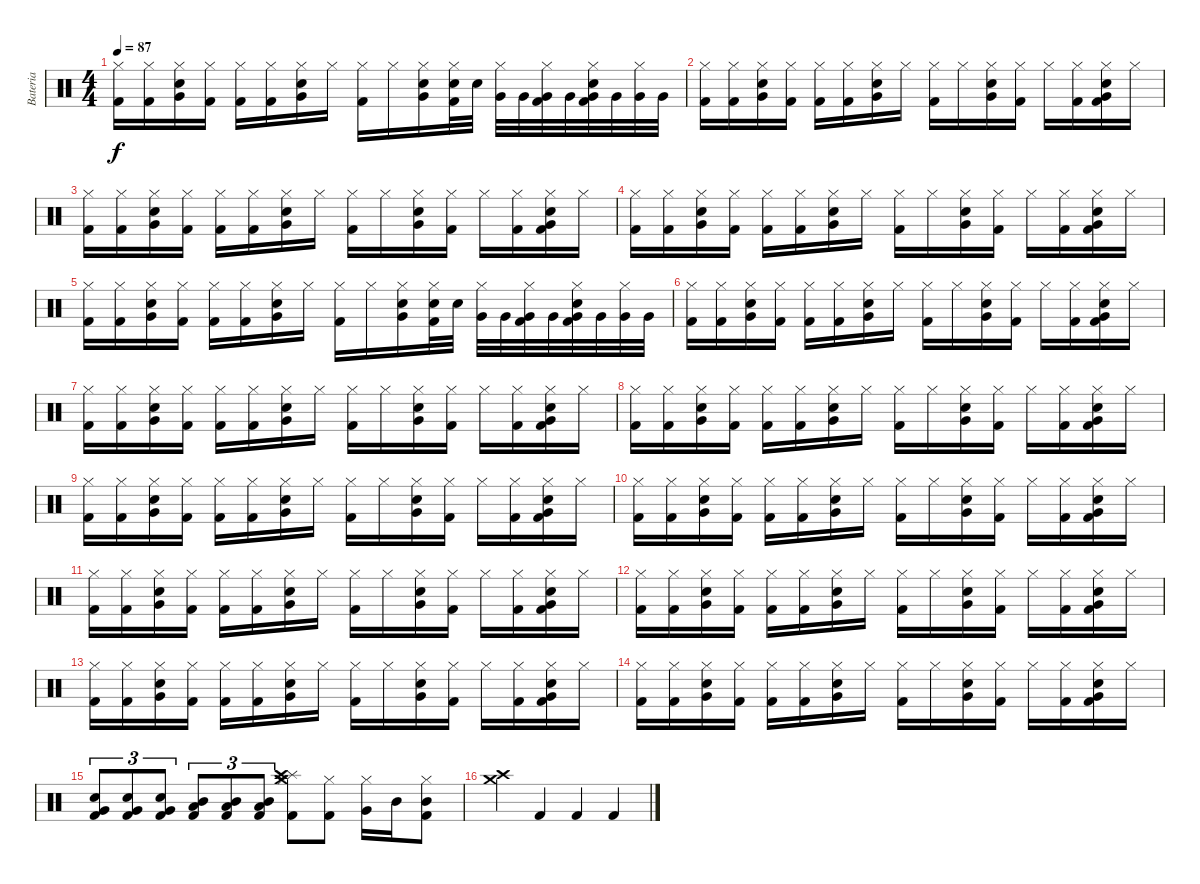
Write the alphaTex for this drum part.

\track ("Bateria" "Bateria") {instrument percussion}
\staff {score}
\articulation defaults
\ts (4 4)
\tempo 87
\clef neutral
\ks c
("Hi-Hat (closed)" "Kick (hit) 2").16{dy f} ("Hi-Hat (closed)" "Kick (hit) 2").16 ("Hi-Hat (closed)" "Snare (hit) 2" "Very Low Tom (hit)").16 ("Hi-Hat (closed)" "Kick (hit) 2").16 ("Hi-Hat (closed)" "Kick (hit) 2").16 ("Hi-Hat (closed)" "Kick (hit) 2").16 ("Hi-Hat (closed)" "Snare (hit) 2" "Very Low Tom (hit)").16 "Hi-Hat (closed)".16 ("Hi-Hat (closed)" "Kick (hit) 2").16 "Hi-Hat (closed)".16 ("Hi-Hat (closed)" "Snare (hit) 2" "Very Low Tom (hit)").16 ("Hi-Hat (closed)" "Kick (hit) 2" "Snare (hit) 2").32 "Snare (hit) 2".32 ("Hi-Hat (closed)" "Very Low Tom (hit)").32 "Very Low Tom (hit)".32 ("Hi-Hat (closed)" "Kick (hit) 2" "Very Low Tom (hit)").32 "Very Low Tom (hit)".32 ("Hi-Hat (closed)" "Kick (hit) 2" "Snare (hit) 2" "Very Low Tom (hit)").32 "Very Low Tom (hit)".32 ("Hi-Hat (closed)" "Very Low Tom (hit)").32 "Very Low Tom (hit)".32 |
("Hi-Hat (closed)" "Kick (hit) 2").16 ("Hi-Hat (closed)" "Kick (hit) 2").16 ("Hi-Hat (closed)" "Snare (hit) 2" "Very Low Tom (hit)").16 ("Hi-Hat (closed)" "Kick (hit) 2").16 ("Hi-Hat (closed)" "Kick (hit) 2").16 ("Hi-Hat (closed)" "Kick (hit) 2").16 ("Hi-Hat (closed)" "Snare (hit) 2" "Very Low Tom (hit)").16 "Hi-Hat (closed)".16 ("Hi-Hat (closed)" "Kick (hit) 2").16 "Hi-Hat (closed)".16 ("Hi-Hat (closed)" "Snare (hit) 2" "Very Low Tom (hit)").16 ("Hi-Hat (closed)" "Kick (hit) 2").16 "Hi-Hat (closed)".16 ("Hi-Hat (closed)" "Kick (hit) 2").16 ("Hi-Hat (closed)" "Kick (hit) 2" "Snare (hit) 2" "Very Low Tom (hit)").16 "Hi-Hat (closed)".16 |
("Hi-Hat (closed)" "Kick (hit) 2").16 ("Hi-Hat (closed)" "Kick (hit) 2").16 ("Hi-Hat (closed)" "Snare (hit) 2" "Very Low Tom (hit)").16 ("Hi-Hat (closed)" "Kick (hit) 2").16 ("Hi-Hat (closed)" "Kick (hit) 2").16 ("Hi-Hat (closed)" "Kick (hit) 2").16 ("Hi-Hat (closed)" "Snare (hit) 2" "Very Low Tom (hit)").16 "Hi-Hat (closed)".16 ("Hi-Hat (closed)" "Kick (hit) 2").16 "Hi-Hat (closed)".16 ("Hi-Hat (closed)" "Snare (hit) 2" "Very Low Tom (hit)").16 ("Hi-Hat (closed)" "Kick (hit) 2").16 "Hi-Hat (closed)".16 ("Hi-Hat (closed)" "Kick (hit) 2").16 ("Hi-Hat (closed)" "Kick (hit) 2" "Snare (hit) 2" "Very Low Tom (hit)").16 "Hi-Hat (closed)".16 |
("Hi-Hat (closed)" "Kick (hit) 2").16 ("Hi-Hat (closed)" "Kick (hit) 2").16 ("Hi-Hat (closed)" "Snare (hit) 2" "Very Low Tom (hit)").16 ("Hi-Hat (closed)" "Kick (hit) 2").16 ("Hi-Hat (closed)" "Kick (hit) 2").16 ("Hi-Hat (closed)" "Kick (hit) 2").16 ("Hi-Hat (closed)" "Snare (hit) 2" "Very Low Tom (hit)").16 "Hi-Hat (closed)".16 ("Hi-Hat (closed)" "Kick (hit) 2").16 "Hi-Hat (closed)".16 ("Hi-Hat (closed)" "Snare (hit) 2" "Very Low Tom (hit)").16 ("Hi-Hat (closed)" "Kick (hit) 2").16 "Hi-Hat (closed)".16 ("Hi-Hat (closed)" "Kick (hit) 2").16 ("Hi-Hat (closed)" "Kick (hit) 2" "Snare (hit) 2" "Very Low Tom (hit)").16 "Hi-Hat (closed)".16 |
("Hi-Hat (closed)" "Kick (hit) 2").16 ("Hi-Hat (closed)" "Kick (hit) 2").16 ("Hi-Hat (closed)" "Snare (hit) 2" "Very Low Tom (hit)").16 ("Hi-Hat (closed)" "Kick (hit) 2").16 ("Hi-Hat (closed)" "Kick (hit) 2").16 ("Hi-Hat (closed)" "Kick (hit) 2").16 ("Hi-Hat (closed)" "Snare (hit) 2" "Very Low Tom (hit)").16 "Hi-Hat (closed)".16 ("Hi-Hat (closed)" "Kick (hit) 2").16 "Hi-Hat (closed)".16 ("Hi-Hat (closed)" "Snare (hit) 2" "Very Low Tom (hit)").16 ("Hi-Hat (closed)" "Kick (hit) 2" "Snare (hit) 2").32 "Snare (hit) 2".32 ("Hi-Hat (closed)" "Very Low Tom (hit)").32 "Very Low Tom (hit)".32 ("Hi-Hat (closed)" "Kick (hit) 2" "Very Low Tom (hit)").32 "Very Low Tom (hit)".32 ("Hi-Hat (closed)" "Kick (hit) 2" "Snare (hit) 2" "Very Low Tom (hit)").32 "Very Low Tom (hit)".32 ("Hi-Hat (closed)" "Very Low Tom (hit)").32 "Very Low Tom (hit)".32 |
("Hi-Hat (closed)" "Kick (hit) 2").16 ("Hi-Hat (closed)" "Kick (hit) 2").16 ("Hi-Hat (closed)" "Snare (hit) 2" "Very Low Tom (hit)").16 ("Hi-Hat (closed)" "Kick (hit) 2").16 ("Hi-Hat (closed)" "Kick (hit) 2").16 ("Hi-Hat (closed)" "Kick (hit) 2").16 ("Hi-Hat (closed)" "Snare (hit) 2" "Very Low Tom (hit)").16 "Hi-Hat (closed)".16 ("Hi-Hat (closed)" "Kick (hit) 2").16 "Hi-Hat (closed)".16 ("Hi-Hat (closed)" "Snare (hit) 2" "Very Low Tom (hit)").16 ("Hi-Hat (closed)" "Kick (hit) 2").16 "Hi-Hat (closed)".16 ("Hi-Hat (closed)" "Kick (hit) 2").16 ("Hi-Hat (closed)" "Kick (hit) 2" "Snare (hit) 2" "Very Low Tom (hit)").16 "Hi-Hat (closed)".16 |
("Hi-Hat (closed)" "Kick (hit) 2").16 ("Hi-Hat (closed)" "Kick (hit) 2").16 ("Hi-Hat (closed)" "Snare (hit) 2" "Very Low Tom (hit)").16 ("Hi-Hat (closed)" "Kick (hit) 2").16 ("Hi-Hat (closed)" "Kick (hit) 2").16 ("Hi-Hat (closed)" "Kick (hit) 2").16 ("Hi-Hat (closed)" "Snare (hit) 2" "Very Low Tom (hit)").16 "Hi-Hat (closed)".16 ("Hi-Hat (closed)" "Kick (hit) 2").16 "Hi-Hat (closed)".16 ("Hi-Hat (closed)" "Snare (hit) 2" "Very Low Tom (hit)").16 ("Hi-Hat (closed)" "Kick (hit) 2").16 "Hi-Hat (closed)".16 ("Hi-Hat (closed)" "Kick (hit) 2").16 ("Hi-Hat (closed)" "Kick (hit) 2" "Snare (hit) 2" "Very Low Tom (hit)").16 "Hi-Hat (closed)".16 |
("Hi-Hat (closed)" "Kick (hit) 2").16 ("Hi-Hat (closed)" "Kick (hit) 2").16 ("Hi-Hat (closed)" "Snare (hit) 2" "Very Low Tom (hit)").16 ("Hi-Hat (closed)" "Kick (hit) 2").16 ("Hi-Hat (closed)" "Kick (hit) 2").16 ("Hi-Hat (closed)" "Kick (hit) 2").16 ("Hi-Hat (closed)" "Snare (hit) 2" "Very Low Tom (hit)").16 "Hi-Hat (closed)".16 ("Hi-Hat (closed)" "Kick (hit) 2").16 "Hi-Hat (closed)".16 ("Hi-Hat (closed)" "Snare (hit) 2" "Very Low Tom (hit)").16 ("Hi-Hat (closed)" "Kick (hit) 2").16 "Hi-Hat (closed)".16 ("Hi-Hat (closed)" "Kick (hit) 2").16 ("Hi-Hat (closed)" "Kick (hit) 2" "Snare (hit) 2" "Very Low Tom (hit)").16 "Hi-Hat (closed)".16 |
("Hi-Hat (closed)" "Kick (hit) 2").16 ("Hi-Hat (closed)" "Kick (hit) 2").16 ("Hi-Hat (closed)" "Snare (hit) 2" "Very Low Tom (hit)").16 ("Hi-Hat (closed)" "Kick (hit) 2").16 ("Hi-Hat (closed)" "Kick (hit) 2").16 ("Hi-Hat (closed)" "Kick (hit) 2").16 ("Hi-Hat (closed)" "Snare (hit) 2" "Very Low Tom (hit)").16 "Hi-Hat (closed)".16 ("Hi-Hat (closed)" "Kick (hit) 2").16 "Hi-Hat (closed)".16 ("Hi-Hat (closed)" "Snare (hit) 2" "Very Low Tom (hit)").16 ("Hi-Hat (closed)" "Kick (hit) 2").16 "Hi-Hat (closed)".16 ("Hi-Hat (closed)" "Kick (hit) 2").16 ("Hi-Hat (closed)" "Kick (hit) 2" "Snare (hit) 2" "Very Low Tom (hit)").16 "Hi-Hat (closed)".16 |
("Hi-Hat (closed)" "Kick (hit) 2").16 ("Hi-Hat (closed)" "Kick (hit) 2").16 ("Hi-Hat (closed)" "Snare (hit) 2" "Very Low Tom (hit)").16 ("Hi-Hat (closed)" "Kick (hit) 2").16 ("Hi-Hat (closed)" "Kick (hit) 2").16 ("Hi-Hat (closed)" "Kick (hit) 2").16 ("Hi-Hat (closed)" "Snare (hit) 2" "Very Low Tom (hit)").16 "Hi-Hat (closed)".16 ("Hi-Hat (closed)" "Kick (hit) 2").16 "Hi-Hat (closed)".16 ("Hi-Hat (closed)" "Snare (hit) 2" "Very Low Tom (hit)").16 ("Hi-Hat (closed)" "Kick (hit) 2").16 "Hi-Hat (closed)".16 ("Hi-Hat (closed)" "Kick (hit) 2").16 ("Hi-Hat (closed)" "Kick (hit) 2" "Snare (hit) 2" "Very Low Tom (hit)").16 "Hi-Hat (closed)".16 |
("Hi-Hat (closed)" "Kick (hit) 2").16 ("Hi-Hat (closed)" "Kick (hit) 2").16 ("Hi-Hat (closed)" "Snare (hit) 2" "Very Low Tom (hit)").16 ("Hi-Hat (closed)" "Kick (hit) 2").16 ("Hi-Hat (closed)" "Kick (hit) 2").16 ("Hi-Hat (closed)" "Kick (hit) 2").16 ("Hi-Hat (closed)" "Snare (hit) 2" "Very Low Tom (hit)").16 "Hi-Hat (closed)".16 ("Hi-Hat (closed)" "Kick (hit) 2").16 "Hi-Hat (closed)".16 ("Hi-Hat (closed)" "Snare (hit) 2" "Very Low Tom (hit)").16 ("Hi-Hat (closed)" "Kick (hit) 2").16 "Hi-Hat (closed)".16 ("Hi-Hat (closed)" "Kick (hit) 2").16 ("Hi-Hat (closed)" "Kick (hit) 2" "Snare (hit) 2" "Very Low Tom (hit)").16 "Hi-Hat (closed)".16 |
("Hi-Hat (closed)" "Kick (hit) 2").16 ("Hi-Hat (closed)" "Kick (hit) 2").16 ("Hi-Hat (closed)" "Snare (hit) 2" "Very Low Tom (hit)").16 ("Hi-Hat (closed)" "Kick (hit) 2").16 ("Hi-Hat (closed)" "Kick (hit) 2").16 ("Hi-Hat (closed)" "Kick (hit) 2").16 ("Hi-Hat (closed)" "Snare (hit) 2" "Very Low Tom (hit)").16 "Hi-Hat (closed)".16 ("Hi-Hat (closed)" "Kick (hit) 2").16 "Hi-Hat (closed)".16 ("Hi-Hat (closed)" "Snare (hit) 2" "Very Low Tom (hit)").16 ("Hi-Hat (closed)" "Kick (hit) 2").16 "Hi-Hat (closed)".16 ("Hi-Hat (closed)" "Kick (hit) 2").16 ("Hi-Hat (closed)" "Kick (hit) 2" "Snare (hit) 2" "Very Low Tom (hit)").16 "Hi-Hat (closed)".16 |
("Hi-Hat (closed)" "Kick (hit) 2").16 ("Hi-Hat (closed)" "Kick (hit) 2").16 ("Hi-Hat (closed)" "Snare (hit) 2" "Very Low Tom (hit)").16 ("Hi-Hat (closed)" "Kick (hit) 2").16 ("Hi-Hat (closed)" "Kick (hit) 2").16 ("Hi-Hat (closed)" "Kick (hit) 2").16 ("Hi-Hat (closed)" "Snare (hit) 2" "Very Low Tom (hit)").16 "Hi-Hat (closed)".16 ("Hi-Hat (closed)" "Kick (hit) 2").16 "Hi-Hat (closed)".16 ("Hi-Hat (closed)" "Snare (hit) 2" "Very Low Tom (hit)").16 ("Hi-Hat (closed)" "Kick (hit) 2").16 "Hi-Hat (closed)".16 ("Hi-Hat (closed)" "Kick (hit) 2").16 ("Hi-Hat (closed)" "Kick (hit) 2" "Snare (hit) 2" "Very Low Tom (hit)").16 "Hi-Hat (closed)".16 |
("Hi-Hat (closed)" "Kick (hit) 2").16 ("Hi-Hat (closed)" "Kick (hit) 2").16 ("Hi-Hat (closed)" "Snare (hit) 2" "Very Low Tom (hit)").16 ("Hi-Hat (closed)" "Kick (hit) 2").16 ("Hi-Hat (closed)" "Kick (hit) 2").16 ("Hi-Hat (closed)" "Kick (hit) 2").16 ("Hi-Hat (closed)" "Snare (hit) 2" "Very Low Tom (hit)").16 "Hi-Hat (closed)".16 ("Hi-Hat (closed)" "Kick (hit) 2").16 "Hi-Hat (closed)".16 ("Hi-Hat (closed)" "Snare (hit) 2" "Very Low Tom (hit)").16 ("Hi-Hat (closed)" "Kick (hit) 2").16 "Hi-Hat (closed)".16 ("Hi-Hat (closed)" "Kick (hit) 2").16 ("Hi-Hat (closed)" "Kick (hit) 2" "Snare (hit) 2" "Very Low Tom (hit)").16 "Hi-Hat (closed)".16 |
("Kick (hit) 2" "Very Low Tom (hit)" "Snare (hit) 2").8{tu (3 2)} ("Kick (hit) 2" "Very Low Tom (hit)" "Snare (hit) 2").8{tu (3 2)} ("Kick (hit) 2" "Very Low Tom (hit)" "Snare (hit) 2").8{tu (3 2)} ("Kick (hit) 2" "Mid Tom (hit)" "Low Tom (hit)").8{tu (3 2)} ("Kick (hit) 2" "Mid Tom (hit)" "Low Tom (hit)").8{tu (3 2)} ("Kick (hit) 2" "Mid Tom (hit)" "Low Tom (hit)").8{tu (3 2)} ("Crash medium (hit)" "Splash (hit)" "Crash high (hit)" "Kick (hit) 2" "Hi-Hat (closed)").8 ("Kick (hit) 2" "Hi-Hat (closed)").8 ("Very Low Tom (hit)" "Hi-Hat (closed)").16 "Mid Tom (hit)".16 ("Mid Tom (hit)" "Kick (hit) 2" "Hi-Hat (closed)").8 |
("Crash medium (hit)" "Crash high (hit)").4 "Kick (hit) 2".4 "Kick (hit) 2".4 "Kick (hit) 2".4
